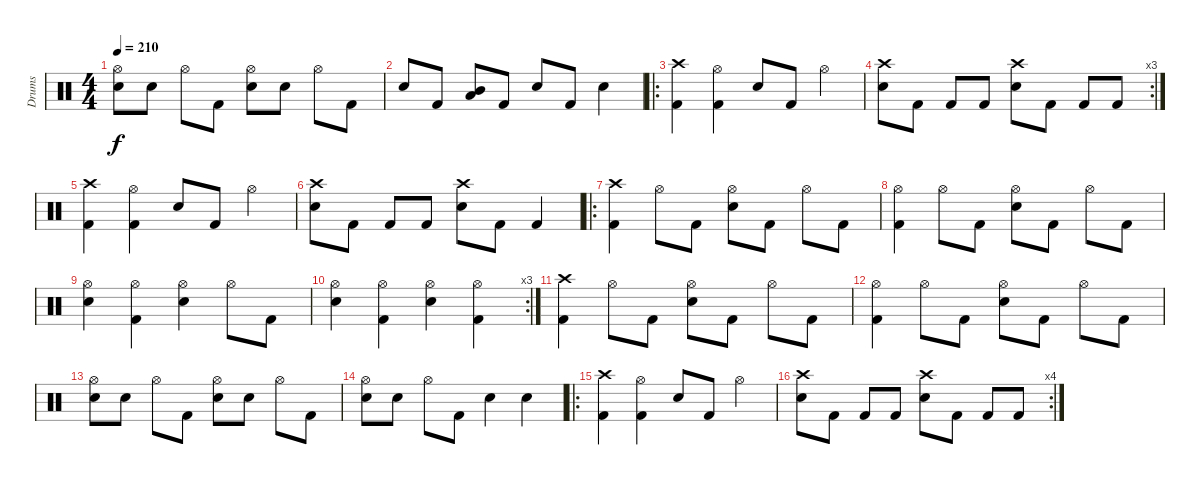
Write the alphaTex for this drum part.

\track ("Drums" "Drums") {instrument percussion}
\staff {score}
\articulation defaults
\ts (4 4)
\tempo 210
\clef neutral
\ks c
("Hi-Hat (open)" "Electric Snare (hit)").8{dy f} "Electric Snare (hit)".8 "Hi-Hat (open)".8 "Kick (hit) 2".8 ("Hi-Hat (open)" "Electric Snare (hit)").8 "Electric Snare (hit)".8 "Hi-Hat (open)".8 "Kick (hit) 2".8 |
"Electric Snare (hit)".8 "Kick (hit) 2".8 ("Mid Tom (hit)" "Low Floor Tom (hit)").8 "Kick (hit) 2".8 "Electric Snare (hit)".8 "Kick (hit) 2".8 "Electric Snare (hit)".4 |
\ro
("Crash high (hit)" "Kick (hit) 2").4 ("Hi-Hat (open)" "Kick (hit) 2").4 "Electric Snare (hit)".8 "Kick (hit) 2".8 "Hi-Hat (open)".4 |
\rc 3
("Crash high (hit)" "Electric Snare (hit)").8 "Kick (hit) 2".8 "Kick (hit) 2".8 "Kick (hit) 2".8 ("Crash high (hit)" "Electric Snare (hit)").8 "Kick (hit) 2".8 "Kick (hit) 2".8 "Kick (hit) 2".8 |
("Crash high (hit)" "Kick (hit) 2").4 ("Hi-Hat (open)" "Kick (hit) 2").4 "Electric Snare (hit)".8 "Kick (hit) 2".8 "Hi-Hat (open)".4 |
("Crash high (hit)" "Electric Snare (hit)").8 "Kick (hit) 2".8 "Kick (hit) 2".8 "Kick (hit) 2".8 ("Crash high (hit)" "Electric Snare (hit)").8 "Kick (hit) 2".8 "Kick (hit) 2".4 |
\ro
("Crash high (hit)" "Kick (hit) 2").4 "Hi-Hat (open)".8 "Kick (hit) 2".8 ("Hi-Hat (open)" "Electric Snare (hit)").8 "Kick (hit) 2".8 "Hi-Hat (open)".8 "Kick (hit) 2".8 |
("Hi-Hat (open)" "Kick (hit) 2").4 "Hi-Hat (open)".8 "Kick (hit) 2".8 ("Hi-Hat (open)" "Electric Snare (hit)").8 "Kick (hit) 2".8 "Hi-Hat (open)".8 "Kick (hit) 2".8 |
("Hi-Hat (open)" "Electric Snare (hit)").4 ("Hi-Hat (open)" "Kick (hit) 2").4 ("Hi-Hat (open)" "Electric Snare (hit)").4 "Hi-Hat (open)".8 "Kick (hit) 2".8 |
\rc 3
("Hi-Hat (open)" "Electric Snare (hit)").4 ("Hi-Hat (open)" "Kick (hit) 2").4 ("Hi-Hat (open)" "Electric Snare (hit)").4 ("Hi-Hat (open)" "Kick (hit) 2").4 |
("Crash high (hit)" "Kick (hit) 2").4 "Hi-Hat (open)".8 "Kick (hit) 2".8 ("Hi-Hat (open)" "Electric Snare (hit)").8 "Kick (hit) 2".8 "Hi-Hat (open)".8 "Kick (hit) 2".8 |
("Hi-Hat (open)" "Kick (hit) 2").4 "Hi-Hat (open)".8 "Kick (hit) 2".8 ("Hi-Hat (open)" "Electric Snare (hit)").8 "Kick (hit) 2".8 "Hi-Hat (open)".8 "Kick (hit) 2".8 |
("Hi-Hat (open)" "Electric Snare (hit)").8 "Electric Snare (hit)".8 "Hi-Hat (open)".8 "Kick (hit) 2".8 ("Hi-Hat (open)" "Electric Snare (hit)").8 "Electric Snare (hit)".8 "Hi-Hat (open)".8 "Kick (hit) 2".8 |
("Hi-Hat (open)" "Electric Snare (hit)").8 "Electric Snare (hit)".8 "Hi-Hat (open)".8 "Kick (hit) 2".8 "Electric Snare (hit)".4 "Electric Snare (hit)".4 |
\ro
("Crash high (hit)" "Kick (hit) 2").4 ("Hi-Hat (open)" "Kick (hit) 2").4 "Electric Snare (hit)".8 "Kick (hit) 2".8 "Hi-Hat (open)".4 |
\rc 4
("Crash high (hit)" "Electric Snare (hit)").8 "Kick (hit) 2".8 "Kick (hit) 2".8 "Kick (hit) 2".8 ("Crash high (hit)" "Electric Snare (hit)").8 "Kick (hit) 2".8 "Kick (hit) 2".8 "Kick (hit) 2".8
